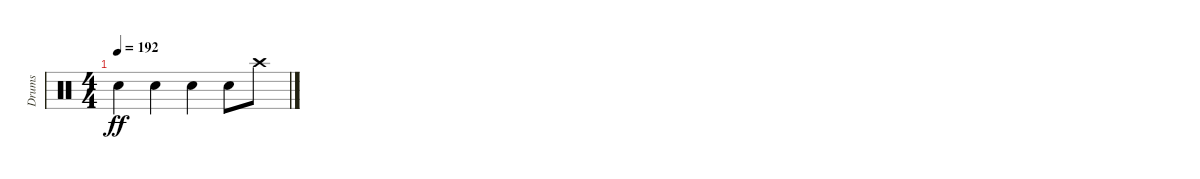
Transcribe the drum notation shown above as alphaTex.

\track ("Drums" "Drums") {instrument percussion}
\staff {score}
\articulation defaults
\ts (4 4)
\tempo 192
\clef neutral
\ks c "Snare (hit) 2".4{dy ff} "Snare (hit) 2".4 "Snare (hit) 2".4 "Snare (hit) 2".8 "Crash high (hit)".8
